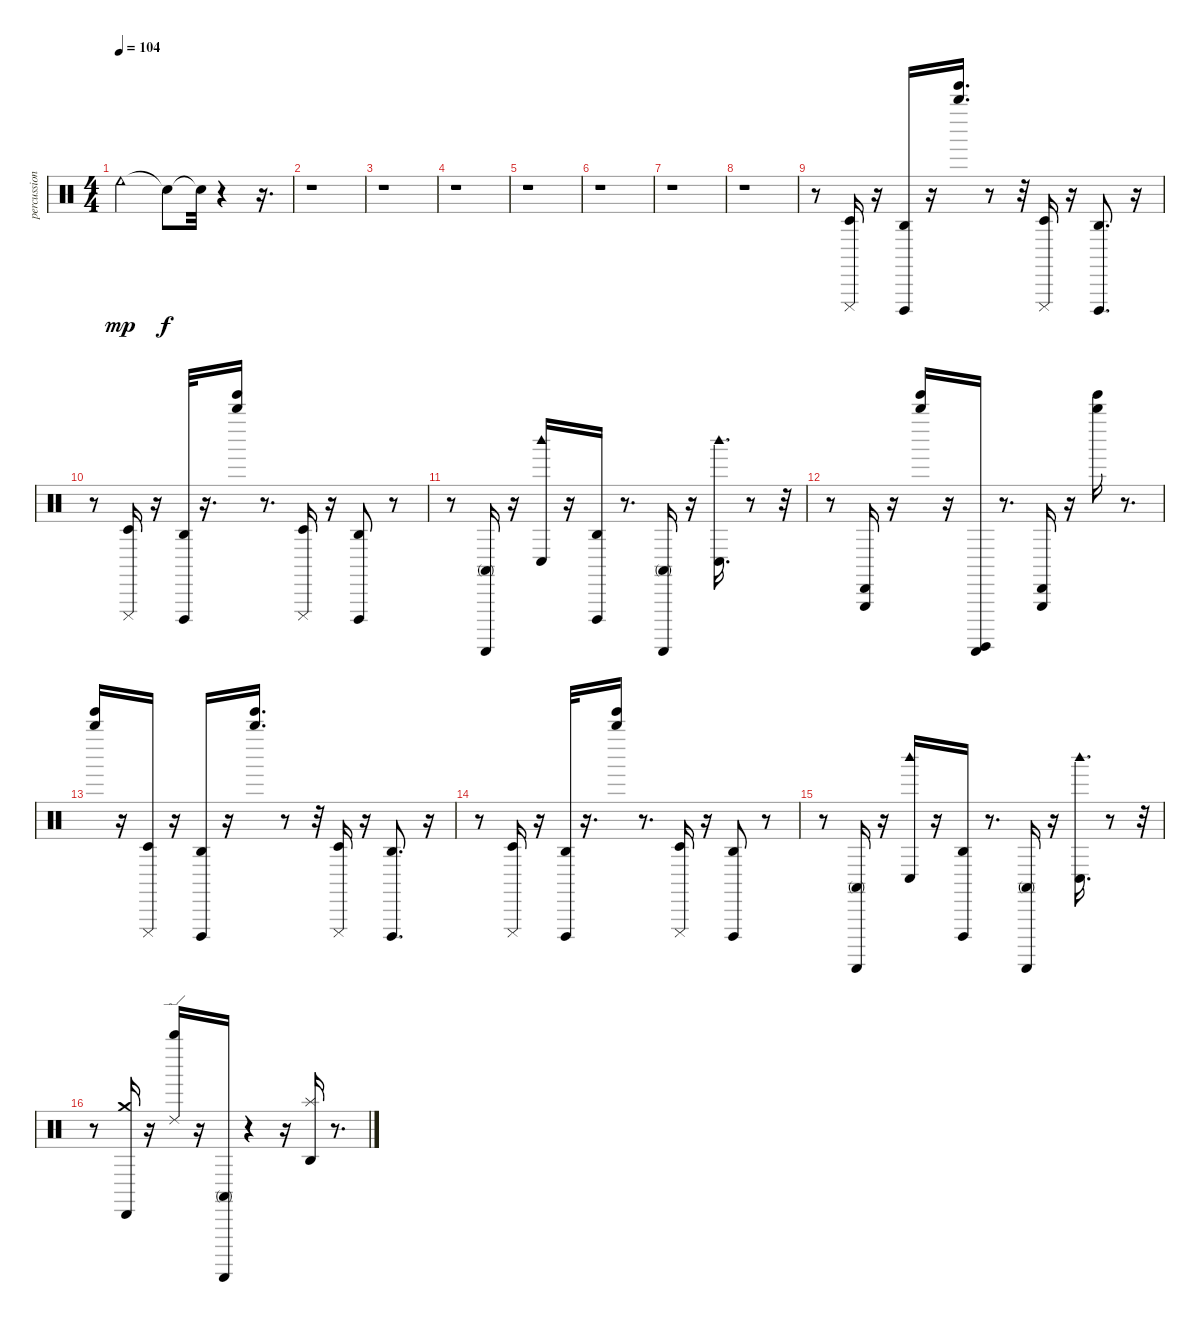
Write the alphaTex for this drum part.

\track ("percussion" "percussion") {instrument percussion}
\staff {score}
\articulation defaults
\ts (4 4)
\tempo 104
\clef neutral
\ks c "Cowbell low (hit)".2{dy mp} "Snare (hit)"{t}.8{dy f} "Snare (hit)"{t}.32
r.4 r.16{d} |
r.1 |
r.1 |
r.1 |
r.1 |
r.1 |
r.1 |
r.1 |
r.8 ("Timbale low (hit)" "Cuica (mute)").16 r.16 ("Agogo high (hit)" "Cuica (open)").16 r.16 ("Whistle high (hit)" "Tinkle Bell (hit)").16{d} r.8 r.32 ("Timbale low (hit)" "Cuica (mute)").16 r.16 ("Agogo high (hit)" "Cuica (open)").8{d} r.16 |
r.8 ("Timbale low (hit)" "Cuica (mute)").16 r.16 ("Agogo high (hit)" "Cuica (open)").32 r.16{d} ("Whistle high (hit)" "Tinkle Bell (hit)").16 r.8{d} ("Timbale low (hit)" "Cuica (mute)").16 r.16 ("Agogo high (hit)" "Cuica (open)").8 r.8 |
r.8 ("Conga high (mute)" "Guiro (scrap-return)").16 r.16 ("Conga low (hit)" "Woodblock high (hit)").16 r.16 ("Agogo high (hit)" "Cuica (open)").16 r.8{d} ("Conga high (mute)" "Guiro (scrap-return)").16 r.16 ("Conga low (hit)" "Woodblock high (hit)").16{d} r.8 r.32 |
r.8 ("Cabasa (hit)" "Triangle (hit)").16 r.16 ("Whistle high (hit)" "Tinkle Bell (hit)").16 r.16 ("Guiro (scrap-return)" "Surdo (hit)").16 r.8{d} ("Cabasa (hit)" "Triangle (hit)").16 r.16 ("Tinkle Bell (hit)" "Whistle high (hit)").16 r.8{d} |
("Whistle high (hit)" "Tinkle Bell (hit)").16 r.16 ("Timbale low (hit)" "Cuica (mute)").16 r.16 ("Agogo high (hit)" "Cuica (open)").16 r.16 ("Whistle high (hit)" "Tinkle Bell (hit)").16{d} r.8 r.32 ("Timbale low (hit)" "Cuica (mute)").16 r.16 ("Agogo high (hit)" "Cuica (open)").8{d} r.16 |
r.8 ("Timbale low (hit)" "Cuica (mute)").16 r.16 ("Agogo high (hit)" "Cuica (open)").32 r.16{d} ("Whistle high (hit)" "Tinkle Bell (hit)").16 r.8{d} ("Timbale low (hit)" "Cuica (mute)").16 r.16 ("Agogo high (hit)" "Cuica (open)").8 r.8 |
r.8 ("Conga high (mute)" "Guiro (scrap-return)").16 r.16 ("Conga low (hit)" "Woodblock high (hit)").16 r.16 ("Agogo high (hit)" "Cuica (open)").16 r.8{d} ("Conga high (mute)" "Guiro (scrap-return)").16 r.16 ("Conga low (hit)" "Woodblock high (hit)").16{d} r.8 r.32 |
r.8 ("Cabasa (hit)" "Crash medium (hit)").16 r.16 ("Whistle high (hit)" "Ride (edge) 2").16 r.16 ("Guiro (scrap-return)" "Conga high (mute)").16 r.4 r.16 ("Agogo high (hit)" "Splash (hit)").16 r.8{d}
